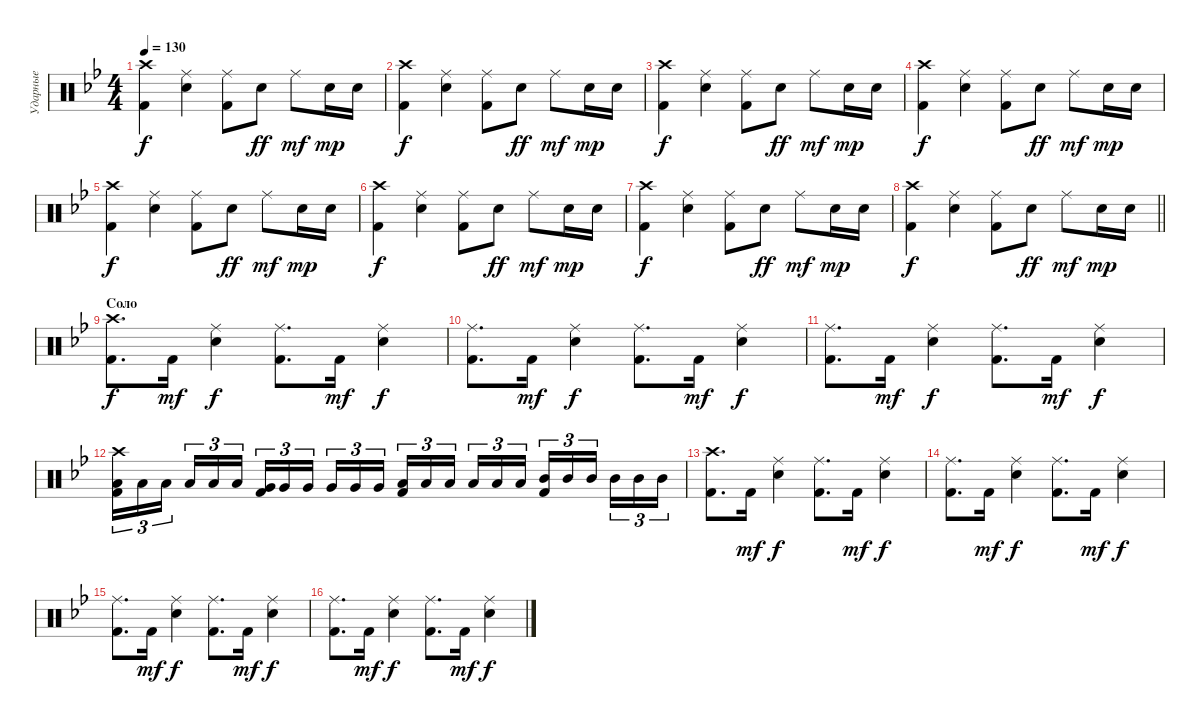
\track ("Ударные" "Ударные") {instrument percussion}
\staff {score}
\articulation defaults
\ts (4 4)
\tempo 130
\clef neutral
\ks gminor
("Crash high (hit)" "Kick (hit) 2").4{dy f} ("Ride (middle)" "Snare (hit) 2").4 ("Ride (middle)" "Kick (hit) 2").8 "Snare (hit) 2".8{dy ff} "Ride (middle)".8{dy mf} "Snare (hit) 2".16{dy mp} "Snare (hit) 2".16 |
("Crash high (hit)" "Kick (hit) 2").4{dy f} ("Ride (middle)" "Snare (hit) 2").4 ("Ride (middle)" "Kick (hit) 2").8 "Snare (hit) 2".8{dy ff} "Ride (middle)".8{dy mf} "Snare (hit) 2".16{dy mp} "Snare (hit) 2".16 |
("Crash high (hit)" "Kick (hit) 2").4{dy f} ("Ride (middle)" "Snare (hit) 2").4 ("Ride (middle)" "Kick (hit) 2").8 "Snare (hit) 2".8{dy ff} "Ride (middle)".8{dy mf} "Snare (hit) 2".16{dy mp} "Snare (hit) 2".16 |
("Crash high (hit)" "Kick (hit) 2").4{dy f} ("Ride (middle)" "Snare (hit) 2").4 ("Ride (middle)" "Kick (hit) 2").8 "Snare (hit) 2".8{dy ff} "Ride (middle)".8{dy mf} "Snare (hit) 2".16{dy mp} "Snare (hit) 2".16 |
("Crash high (hit)" "Kick (hit) 2").4{dy f} ("Ride (middle)" "Snare (hit) 2").4 ("Ride (middle)" "Kick (hit) 2").8 "Snare (hit) 2".8{dy ff} "Ride (middle)".8{dy mf} "Snare (hit) 2".16{dy mp} "Snare (hit) 2".16 |
("Crash high (hit)" "Kick (hit) 2").4{dy f} ("Ride (middle)" "Snare (hit) 2").4 ("Ride (middle)" "Kick (hit) 2").8 "Snare (hit) 2".8{dy ff} "Ride (middle)".8{dy mf} "Snare (hit) 2".16{dy mp} "Snare (hit) 2".16 |
("Crash high (hit)" "Kick (hit) 2").4{dy f} ("Ride (middle)" "Snare (hit) 2").4 ("Ride (middle)" "Kick (hit) 2").8 "Snare (hit) 2".8{dy ff} "Ride (middle)".8{dy mf} "Snare (hit) 2".16{dy mp} "Snare (hit) 2".16 |
\barLineRight lightlight
("Crash high (hit)" "Kick (hit) 2").4{dy f} ("Ride (middle)" "Snare (hit) 2").4 ("Ride (middle)" "Kick (hit) 2").8 "Snare (hit) 2".8{dy ff} "Ride (middle)".8{dy mf} "Snare (hit) 2".16{dy mp} "Snare (hit) 2".16 |
\section ("" "Соло")
("Crash high (hit)" "Kick (hit) 2").8{d dy f} "Kick (hit) 2".16{dy mf} ("Ride (middle)" "Snare (hit) 2").4{dy f} ("Ride (middle)" "Kick (hit) 2").8{d} "Kick (hit) 2".16{dy mf} ("Ride (middle)" "Snare (hit) 2").4{dy f} |
("Ride (middle)" "Kick (hit) 2").8{d} "Kick (hit) 2".16{dy mf} ("Ride (middle)" "Snare (hit) 2").4{dy f} ("Ride (middle)" "Kick (hit) 2").8{d} "Kick (hit) 2".16{dy mf} ("Ride (middle)" "Snare (hit) 2").4{dy f} |
("Ride (middle)" "Kick (hit) 2").8{d} "Kick (hit) 2".16{dy mf} ("Ride (middle)" "Snare (hit) 2").4{dy f} ("Ride (middle)" "Kick (hit) 2").8{d} "Kick (hit) 2".16{dy mf} ("Ride (middle)" "Snare (hit) 2").4{dy f} |
("Crash high (hit)" "Low Floor Tom (hit)" "Kick (hit) 2").16{tu (3 2)} "Low Floor Tom (hit)".16{tu (3 2)} "Low Floor Tom (hit)".16{tu (3 2) beam splitsecondary} "Low Floor Tom (hit)".16{tu (3 2)} "Low Floor Tom (hit)".16{tu (3 2)} "Low Floor Tom (hit)".16{tu (3 2)} ("Very Low Tom (hit)" "Kick (hit) 2").16{tu (3 2)} "Very Low Tom (hit)".16{tu (3 2)} "Very Low Tom (hit)".16{tu (3 2) beam splitsecondary} "Very Low Tom (hit)".16{tu (3 2)} "Very Low Tom (hit)".16{tu (3 2)} "Very Low Tom (hit)".16{tu (3 2)} ("Low Tom (hit)" "Kick (hit) 2").16{tu (3 2)} "Low Tom (hit)".16{tu (3 2)} "Low Tom (hit)".16{tu (3 2) beam splitsecondary} "Low Tom (hit)".16{tu (3 2)} "Low Tom (hit)".16{tu (3 2)} "Low Tom (hit)".16{tu (3 2)} ("Mid Tom (hit)" "Kick (hit) 2").16{tu (3 2)} "Mid Tom (hit)".16{tu (3 2)} "Mid Tom (hit)".16{tu (3 2) beam splitsecondary} "Mid Tom (hit)".16{tu (3 2)} "Mid Tom (hit)".16{tu (3 2)} "Mid Tom (hit)".16{tu (3 2)} |
("Crash high (hit)" "Kick (hit) 2").8{d} "Kick (hit) 2".16{dy mf} ("Ride (middle)" "Snare (hit) 2").4{dy f} ("Ride (middle)" "Kick (hit) 2").8{d} "Kick (hit) 2".16{dy mf} ("Ride (middle)" "Snare (hit) 2").4{dy f} |
("Ride (middle)" "Kick (hit) 2").8{d} "Kick (hit) 2".16{dy mf} ("Ride (middle)" "Snare (hit) 2").4{dy f} ("Ride (middle)" "Kick (hit) 2").8{d} "Kick (hit) 2".16{dy mf} ("Ride (middle)" "Snare (hit) 2").4{dy f} |
("Ride (middle)" "Kick (hit) 2").8{d} "Kick (hit) 2".16{dy mf} ("Ride (middle)" "Snare (hit) 2").4{dy f} ("Ride (middle)" "Kick (hit) 2").8{d} "Kick (hit) 2".16{dy mf} ("Ride (middle)" "Snare (hit) 2").4{dy f} |
("Ride (middle)" "Kick (hit) 2").8{d} "Kick (hit) 2".16{dy mf} ("Ride (middle)" "Snare (hit) 2").4{dy f} ("Ride (middle)" "Kick (hit) 2").8{d} "Kick (hit) 2".16{dy mf} ("Ride (middle)" "Snare (hit) 2").4{dy f}
